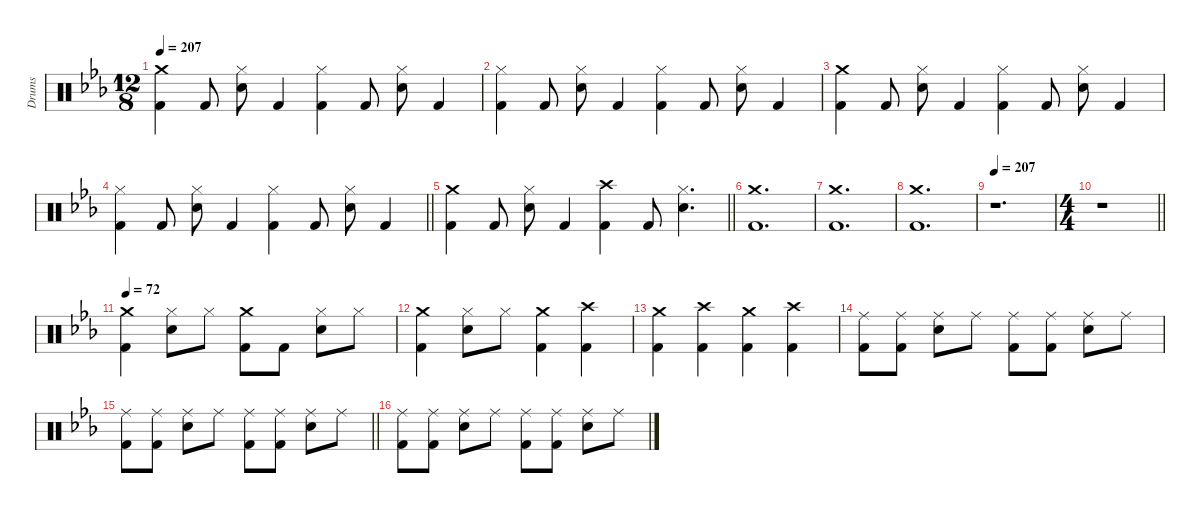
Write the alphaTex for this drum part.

\defaultSystemsLayout 8
\hideDynamics
\bracketExtendMode nobrackets
\otherSystemsTrackNameOrientation horizontal
\track ("Drumkit" "Drums") {defaultSystemsLayout 4 instrument percussion}
\staff {score}
\articulation defaults
\ts (12 8)
\tempo 207
\clef neutral
\ks eb
("Crash medium (hit)"{acc forcenatural} "Kick (hit) 2"{acc forcenatural}).4{dy f beam Down} "Kick (hit) 2"{acc forcenatural}.8{beam Up} ("Hi-Hat (closed)"{acc forcenatural} "Snare (hit) 2"{acc forcenatural}).8{beam Down} "Kick (hit) 2"{acc forcenatural}.4{beam Up} ("Hi-Hat (closed)"{acc forcenatural} "Kick (hit) 2"{acc forcenatural}).4{beam Down} "Kick (hit) 2"{acc forcenatural}.8{beam Up} ("Hi-Hat (closed)"{acc forcenatural} "Snare (hit) 2"{acc forcenatural}).8{beam Down} "Kick (hit) 2"{acc forcenatural}.4{beam Up} |
("Hi-Hat (closed)"{acc forcenatural} "Kick (hit) 2"{acc forcenatural}).4{beam Down} "Kick (hit) 2"{acc forcenatural}.8{beam Up} ("Hi-Hat (closed)"{acc forcenatural} "Snare (hit) 2"{acc forcenatural}).8{beam Down} "Kick (hit) 2"{acc forcenatural}.4{beam Up} ("Hi-Hat (closed)"{acc forcenatural} "Kick (hit) 2"{acc forcenatural}).4{beam Down} "Kick (hit) 2"{acc forcenatural}.8{beam Up} ("Hi-Hat (closed)"{acc forcenatural} "Snare (hit) 2"{acc forcenatural}).8{beam Down} "Kick (hit) 2"{acc forcenatural}.4{beam Up} |
("Crash medium (hit)"{acc forcenatural} "Kick (hit) 2"{acc forcenatural}).4{beam Down} "Kick (hit) 2"{acc forcenatural}.8{beam Up} ("Hi-Hat (closed)"{acc forcenatural} "Snare (hit) 2"{acc forcenatural}).8{beam Down} "Kick (hit) 2"{acc forcenatural}.4{beam Up} ("Hi-Hat (closed)"{acc forcenatural} "Kick (hit) 2"{acc forcenatural}).4{beam Down} "Kick (hit) 2"{acc forcenatural}.8{beam Up} ("Hi-Hat (closed)"{acc forcenatural} "Snare (hit) 2"{acc forcenatural}).8{beam Down} "Kick (hit) 2"{acc forcenatural}.4{beam Up} |
\barLineRight lightlight
("Hi-Hat (closed)"{acc forcenatural} "Kick (hit) 2"{acc forcenatural}).4{beam Down} "Kick (hit) 2"{acc forcenatural}.8{beam Up} ("Hi-Hat (closed)"{acc forcenatural} "Snare (hit) 2"{acc forcenatural}).8{beam Down} "Kick (hit) 2"{acc forcenatural}.4{beam Up} ("Hi-Hat (closed)"{acc forcenatural} "Kick (hit) 2"{acc forcenatural}).4{beam Down} "Kick (hit) 2"{acc forcenatural}.8{beam Up} ("Hi-Hat (closed)"{acc forcenatural} "Snare (hit) 2"{acc forcenatural}).8{beam Down} "Kick (hit) 2"{acc forcenatural}.4{beam Up} |
\barLineRight lightlight
("Crash medium (hit)"{acc forcenatural} "Kick (hit) 2"{acc forcenatural}).4{beam Down} "Kick (hit) 2"{acc forcenatural}.8{beam Up} ("Hi-Hat (closed)"{acc forcenatural} "Snare (hit) 2"{acc forcenatural}).8{beam Down} "Kick (hit) 2"{acc forcenatural}.4{beam Up} ("Crash high (hit)"{acc forcenatural} "Kick (hit) 2"{acc forcenatural}).4{beam Down} "Kick (hit) 2"{acc forcenatural}.8{beam Up} ("Hi-Hat (closed)"{acc forcenatural} "Snare (hit) 2"{acc forcenatural}).4{d beam Down} |
("Crash medium (hit)"{acc forcenatural} "Kick (hit) 2"{acc forcenatural}).1{d beam Down} |
("Crash medium (hit)"{acc forcenatural} "Kick (hit) 2"{acc forcenatural}).1{d beam Down} |
("Crash medium (hit)"{acc forcenatural} "Kick (hit) 2"{acc forcenatural}).1{d beam Down} |
\tempo 207
r.1{d beam Down} |
\ts (4 4)
\barLineRight lightlight
r.1{beam Down} |
\tempo 72
("Crash medium (hit)"{acc forcenatural} "Kick (hit) 2"{acc forcenatural}).4{beam Down} ("Hi-Hat (closed)"{acc forcenatural} "Snare (hit) 2"{acc forcenatural}).8{beam Down} "Hi-Hat (closed)"{acc forcenatural}.8{beam Down} ("Crash medium (hit)"{acc forcenatural} "Kick (hit) 2"{acc forcenatural}).8{beam Down} "Kick (hit) 2"{acc forcenatural}.8{beam Down} ("Hi-Hat (closed)"{acc forcenatural} "Snare (hit) 2"{acc forcenatural}).8{beam Down} "Hi-Hat (closed)"{acc forcenatural}.8{beam Down} |
("Crash medium (hit)"{acc forcenatural} "Kick (hit) 2"{acc forcenatural}).4{beam Down} ("Hi-Hat (closed)"{acc forcenatural} "Snare (hit) 2"{acc forcenatural}).8{beam Down} "Hi-Hat (closed)"{acc forcenatural}.8{beam Down} ("Crash medium (hit)"{acc forcenatural} "Kick (hit) 2"{acc forcenatural}).4{beam Down} ("Crash high (hit)"{acc forcenatural} "Kick (hit) 2"{acc forcenatural}).4{beam Down} |
("Crash medium (hit)"{acc forcenatural} "Kick (hit) 2"{acc forcenatural}).4{beam Down} ("Crash high (hit)"{acc forcenatural} "Kick (hit) 2"{acc forcenatural}).4{beam Down} ("Crash medium (hit)"{acc forcenatural} "Kick (hit) 2"{acc forcenatural}).4{beam Down} ("Crash high (hit)"{acc forcenatural} "Kick (hit) 2"{acc forcenatural}).4{beam Down} |
("Ride (middle)"{acc forcenatural} "Kick (hit) 2"{acc forcenatural}).8{beam Down} ("Ride (middle)"{acc forcenatural} "Kick (hit) 2"{acc forcenatural}).8{beam Down} ("Ride (middle)"{acc forcenatural} "Snare (hit) 2"{acc forcenatural}).8{beam Down} "Ride (middle)"{acc forcenatural}.8{beam Down} ("Ride (middle)"{acc forcenatural} "Kick (hit) 2"{acc forcenatural}).8{beam Down} ("Ride (middle)"{acc forcenatural} "Kick (hit) 2"{acc forcenatural}).8{beam Down} ("Ride (middle)"{acc forcenatural} "Snare (hit) 2"{acc forcenatural}).8{beam Down} "Ride (middle)"{acc forcenatural}.8{beam Down} |
\barLineRight lightlight
("Ride (middle)"{acc forcenatural} "Kick (hit) 2"{acc forcenatural}).8{beam Down} ("Ride (middle)"{acc forcenatural} "Kick (hit) 2"{acc forcenatural}).8{beam Down} ("Ride (middle)"{acc forcenatural} "Snare (hit) 2"{acc forcenatural}).8{beam Down} "Ride (middle)"{acc forcenatural}.8{beam Down} ("Ride (middle)"{acc forcenatural} "Kick (hit) 2"{acc forcenatural}).8{beam Down} ("Ride (middle)"{acc forcenatural} "Kick (hit) 2"{acc forcenatural}).8{beam Down} ("Ride (middle)"{acc forcenatural} "Snare (hit) 2"{acc forcenatural}).8{beam Down} "Ride (middle)"{acc forcenatural}.8{beam Down} |
("Ride (middle)"{acc forcenatural} "Kick (hit) 2"{acc forcenatural}).8{beam Down} ("Ride (middle)"{acc forcenatural} "Kick (hit) 2"{acc forcenatural}).8{beam Down} ("Ride (middle)"{acc forcenatural} "Snare (hit) 2"{acc forcenatural}).8{beam Down} "Ride (middle)"{acc forcenatural}.8{beam Down} ("Ride (middle)"{acc forcenatural} "Kick (hit) 2"{acc forcenatural}).8{beam Down} ("Ride (middle)"{acc forcenatural} "Kick (hit) 2"{acc forcenatural}).8{beam Down} ("Ride (middle)"{acc forcenatural} "Snare (hit) 2"{acc forcenatural}).8{beam Down} "Ride (middle)"{acc forcenatural}.8{beam Down}
